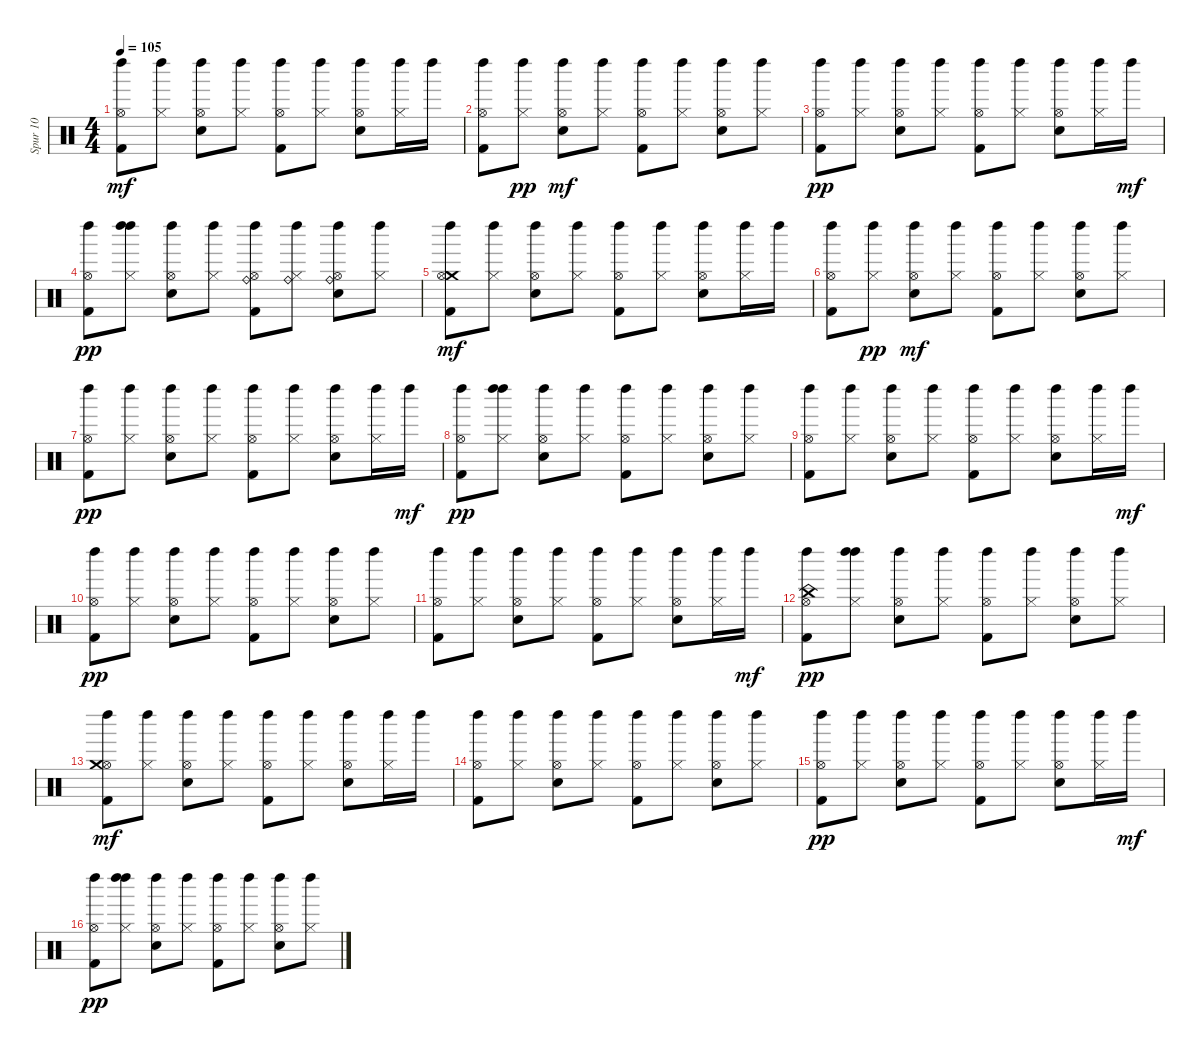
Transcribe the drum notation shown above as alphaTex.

\track ("Spur 10" "Spur 10") {instrument percussion}
\staff {score}
\articulation defaults
\ts (4 4)
\tempo 105
\clef neutral
\ks c
("Kick (hit) 2" "Hi-Hat (open)" "Left Maraca (hit)").8{dy mf} ("Hi-Hat (closed)" "Left Maraca (hit)").8 ("Snare (hit) 2" "Hi-Hat (open)" "Left Maraca (hit)").8 ("Hi-Hat (closed)" "Left Maraca (hit)").8 ("Kick (hit) 2" "Hi-Hat (open)" "Left Maraca (hit)").8 ("Hi-Hat (closed)" "Left Maraca (hit)").8 ("Snare (hit) 2" "Hi-Hat (open)" "Left Maraca (hit)").8 ("Hi-Hat (closed)" "Left Maraca (hit)").16 "Left Maraca (hit)".16 |
("Kick (hit) 2" "Hi-Hat (open)" "Left Maraca (hit)").8 ("Left Maraca (hit)" "Hi-Hat (closed)").8{dy pp} ("Snare (hit) 2" "Hi-Hat (open)" "Left Maraca (hit)").8{dy mf} ("Hi-Hat (closed)" "Left Maraca (hit)").8 ("Kick (hit) 2" "Hi-Hat (open)" "Left Maraca (hit)").8 ("Hi-Hat (closed)" "Left Maraca (hit)").8 ("Snare (hit) 2" "Hi-Hat (open)" "Left Maraca (hit)").8 ("Hi-Hat (closed)" "Left Maraca (hit)").8 |
("Left Maraca (hit)" "Kick (hit) 2" "Hi-Hat (open)").8{dy pp} ("Left Maraca (hit)" "Hi-Hat (closed)").8 ("Left Maraca (hit)" "Snare (hit) 2" "Hi-Hat (open)").8 ("Left Maraca (hit)" "Hi-Hat (closed)").8 ("Left Maraca (hit)" "Kick (hit) 2" "Hi-Hat (open)").8 ("Left Maraca (hit)" "Hi-Hat (closed)").8 ("Left Maraca (hit)" "Snare (hit) 2" "Hi-Hat (open)").8 ("Left Maraca (hit)" "Hi-Hat (closed)").16 "Left Maraca (hit)".16{dy mf} |
("Left Maraca (hit)" "Kick (hit) 2" "Hi-Hat (open)").8{dy pp} ("Left Maraca (hit)" "Left Maraca (hit)" "Hi-Hat (closed)").8 ("Left Maraca (hit)" "Snare (hit) 2" "Hi-Hat (open)").8 ("Left Maraca (hit)" "Hi-Hat (closed)").8 ("Left Maraca (hit)" "Kick (hit) 2" "Hi-Hat (open)" "Ride (bell)").8 ("Left Maraca (hit)" "Hi-Hat (closed)" "Ride (bell)").8 ("Left Maraca (hit)" "Snare (hit) 2" "Hi-Hat (open)" "Ride (bell)").8 ("Left Maraca (hit)" "Hi-Hat (closed)").8 |
("Kick (hit) 2" "Crash medium (hit)" "Hi-Hat (open)" "Left Maraca (hit)").8{dy mf} ("Hi-Hat (closed)" "Left Maraca (hit)").8 ("Snare (hit) 2" "Hi-Hat (open)" "Left Maraca (hit)").8 ("Hi-Hat (closed)" "Left Maraca (hit)").8 ("Kick (hit) 2" "Hi-Hat (open)" "Left Maraca (hit)").8 ("Hi-Hat (closed)" "Left Maraca (hit)").8 ("Snare (hit) 2" "Hi-Hat (open)" "Left Maraca (hit)").8 ("Hi-Hat (closed)" "Left Maraca (hit)").16 "Left Maraca (hit)".16 |
("Kick (hit) 2" "Hi-Hat (open)" "Left Maraca (hit)").8 ("Left Maraca (hit)" "Hi-Hat (closed)").8{dy pp} ("Snare (hit) 2" "Hi-Hat (open)" "Left Maraca (hit)").8{dy mf} ("Hi-Hat (closed)" "Left Maraca (hit)").8 ("Kick (hit) 2" "Hi-Hat (open)" "Left Maraca (hit)").8 ("Hi-Hat (closed)" "Left Maraca (hit)").8 ("Snare (hit) 2" "Hi-Hat (open)" "Left Maraca (hit)").8 ("Hi-Hat (closed)" "Left Maraca (hit)").8 |
("Left Maraca (hit)" "Kick (hit) 2" "Hi-Hat (open)").8{dy pp} ("Left Maraca (hit)" "Hi-Hat (closed)").8 ("Left Maraca (hit)" "Snare (hit) 2" "Hi-Hat (open)").8 ("Left Maraca (hit)" "Hi-Hat (closed)").8 ("Left Maraca (hit)" "Kick (hit) 2" "Hi-Hat (open)").8 ("Left Maraca (hit)" "Hi-Hat (closed)").8 ("Left Maraca (hit)" "Snare (hit) 2" "Hi-Hat (open)").8 ("Left Maraca (hit)" "Hi-Hat (closed)").16 "Left Maraca (hit)".16{dy mf} |
("Left Maraca (hit)" "Kick (hit) 2" "Hi-Hat (open)").8{dy pp} ("Left Maraca (hit)" "Left Maraca (hit)" "Hi-Hat (closed)").8 ("Left Maraca (hit)" "Snare (hit) 2" "Hi-Hat (open)").8 ("Left Maraca (hit)" "Hi-Hat (closed)").8 ("Left Maraca (hit)" "Kick (hit) 2" "Hi-Hat (open)").8 ("Left Maraca (hit)" "Hi-Hat (closed)").8 ("Left Maraca (hit)" "Snare (hit) 2" "Hi-Hat (open)").8 ("Left Maraca (hit)" "Hi-Hat (closed)").8 |
("Kick (hit) 2" "Left Maraca (hit)" "Hi-Hat (open)").8 ("Left Maraca (hit)" "Hi-Hat (closed)").8 ("Snare (hit) 2" "Left Maraca (hit)" "Hi-Hat (open)").8 ("Left Maraca (hit)" "Hi-Hat (closed)").8 ("Kick (hit) 2" "Left Maraca (hit)" "Hi-Hat (open)").8 ("Left Maraca (hit)" "Hi-Hat (closed)").8 ("Snare (hit) 2" "Left Maraca (hit)" "Hi-Hat (open)").8 ("Left Maraca (hit)" "Hi-Hat (closed)").16 "Left Maraca (hit)".16{dy mf} |
("Kick (hit) 2" "Left Maraca (hit)" "Hi-Hat (open)").8{dy pp} ("Left Maraca (hit)" "Hi-Hat (closed)").8 ("Snare (hit) 2" "Left Maraca (hit)" "Hi-Hat (open)").8 ("Left Maraca (hit)" "Hi-Hat (closed)").8 ("Kick (hit) 2" "Left Maraca (hit)" "Hi-Hat (open)").8 ("Left Maraca (hit)" "Hi-Hat (closed)").8 ("Snare (hit) 2" "Left Maraca (hit)" "Hi-Hat (open)").8 ("Left Maraca (hit)" "Hi-Hat (closed)").8 |
("Left Maraca (hit)" "Kick (hit) 2" "Hi-Hat (open)").8 ("Left Maraca (hit)" "Hi-Hat (closed)").8 ("Left Maraca (hit)" "Snare (hit) 2" "Hi-Hat (open)").8 ("Left Maraca (hit)" "Hi-Hat (closed)").8 ("Left Maraca (hit)" "Kick (hit) 2" "Hi-Hat (open)").8 ("Left Maraca (hit)" "Hi-Hat (closed)").8 ("Left Maraca (hit)" "Snare (hit) 2" "Hi-Hat (open)").8 ("Left Maraca (hit)" "Hi-Hat (closed)").16 "Left Maraca (hit)".16{dy mf} |
("Left Maraca (hit)" "Kick (hit) 2" "Hi-Hat (open)" "China (hit)").8{dy pp} ("Left Maraca (hit)" "Left Maraca (hit)" "Hi-Hat (closed)").8 ("Left Maraca (hit)" "Snare (hit) 2" "Hi-Hat (open)").8 ("Left Maraca (hit)" "Hi-Hat (closed)").8 ("Left Maraca (hit)" "Kick (hit) 2" "Hi-Hat (open)").8 ("Left Maraca (hit)" "Hi-Hat (closed)").8 ("Left Maraca (hit)" "Snare (hit) 2" "Hi-Hat (open)").8 ("Left Maraca (hit)" "Hi-Hat (closed)").8 |
("Hi-Hat (open)" "Crash medium (hit)" "Left Maraca (hit)" "Kick (hit) 2").8{dy mf} ("Hi-Hat (closed)" "Left Maraca (hit)").8 ("Hi-Hat (open)" "Left Maraca (hit)" "Snare (hit) 2").8 ("Hi-Hat (closed)" "Left Maraca (hit)").8 ("Hi-Hat (open)" "Left Maraca (hit)" "Kick (hit) 2").8 ("Hi-Hat (closed)" "Left Maraca (hit)").8 ("Hi-Hat (open)" "Left Maraca (hit)" "Snare (hit) 2").8 ("Hi-Hat (closed)" "Left Maraca (hit)").16 "Left Maraca (hit)".16 |
("Hi-Hat (open)" "Left Maraca (hit)" "Kick (hit) 2").8 ("Hi-Hat (closed)" "Left Maraca (hit)").8 ("Hi-Hat (open)" "Left Maraca (hit)" "Snare (hit) 2").8 ("Hi-Hat (closed)" "Left Maraca (hit)").8 ("Hi-Hat (open)" "Left Maraca (hit)" "Kick (hit) 2").8 ("Hi-Hat (closed)" "Left Maraca (hit)").8 ("Hi-Hat (open)" "Left Maraca (hit)" "Snare (hit) 2").8 ("Hi-Hat (closed)" "Left Maraca (hit)").8 |
("Left Maraca (hit)" "Kick (hit) 2" "Hi-Hat (open)").8{dy pp} ("Left Maraca (hit)" "Hi-Hat (closed)").8 ("Left Maraca (hit)" "Snare (hit) 2" "Hi-Hat (open)").8 ("Left Maraca (hit)" "Hi-Hat (closed)").8 ("Left Maraca (hit)" "Kick (hit) 2" "Hi-Hat (open)").8 ("Left Maraca (hit)" "Hi-Hat (closed)").8 ("Left Maraca (hit)" "Snare (hit) 2" "Hi-Hat (open)").8 ("Left Maraca (hit)" "Hi-Hat (closed)").16 "Left Maraca (hit)".16{dy mf} |
("Left Maraca (hit)" "Kick (hit) 2" "Hi-Hat (open)").8{dy pp} ("Left Maraca (hit)" "Left Maraca (hit)" "Hi-Hat (closed)").8 ("Left Maraca (hit)" "Snare (hit) 2" "Hi-Hat (open)").8 ("Left Maraca (hit)" "Hi-Hat (closed)").8 ("Left Maraca (hit)" "Kick (hit) 2" "Hi-Hat (open)").8 ("Left Maraca (hit)" "Hi-Hat (closed)").8 ("Left Maraca (hit)" "Snare (hit) 2" "Hi-Hat (open)").8 ("Left Maraca (hit)" "Hi-Hat (closed)").8
